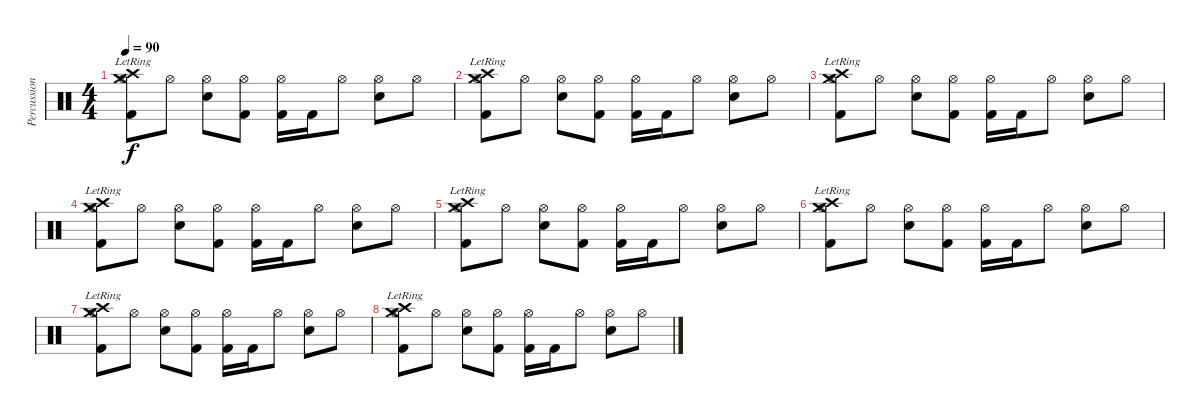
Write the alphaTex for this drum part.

\track ("Percussions" "Percussion") {instrument percussion}
\staff {score}
\articulation defaults
\ts (4 4)
\tempo 90
\clef neutral
\ks c
("Kick (hit) 2" "Hi-Hat (open)" "Crash medium (hit)"{lr} "Crash high (hit)").8{dy f} "Hi-Hat (open)".8 ("Snare (hit) 2" "Hi-Hat (open)").8 ("Kick (hit) 2" "Hi-Hat (open)").8 ("Kick (hit) 2" "Hi-Hat (open)").16 "Kick (hit) 2".16 "Hi-Hat (open)".8 ("Snare (hit) 2" "Hi-Hat (open)").8 "Hi-Hat (open)".8 |
("Kick (hit) 2" "Hi-Hat (open)" "Crash medium (hit)"{lr} "Crash high (hit)").8 "Hi-Hat (open)".8 ("Snare (hit) 2" "Hi-Hat (open)").8 ("Kick (hit) 2" "Hi-Hat (open)").8 ("Kick (hit) 2" "Hi-Hat (open)").16 "Kick (hit) 2".16 "Hi-Hat (open)".8 ("Snare (hit) 2" "Hi-Hat (open)").8 "Hi-Hat (open)".8 |
("Kick (hit) 2" "Hi-Hat (open)" "Crash medium (hit)"{lr} "Crash high (hit)").8 "Hi-Hat (open)".8 ("Snare (hit) 2" "Hi-Hat (open)").8 ("Kick (hit) 2" "Hi-Hat (open)").8 ("Kick (hit) 2" "Hi-Hat (open)").16 "Kick (hit) 2".16 "Hi-Hat (open)".8 ("Snare (hit) 2" "Hi-Hat (open)").8 "Hi-Hat (open)".8 |
("Kick (hit) 2" "Hi-Hat (open)" "Crash medium (hit)"{lr} "Crash high (hit)").8 "Hi-Hat (open)".8 ("Snare (hit) 2" "Hi-Hat (open)").8 ("Kick (hit) 2" "Hi-Hat (open)").8 ("Kick (hit) 2" "Hi-Hat (open)").16 "Kick (hit) 2".16 "Hi-Hat (open)".8 ("Snare (hit) 2" "Hi-Hat (open)").8 "Hi-Hat (open)".8 |
("Kick (hit) 2" "Hi-Hat (open)" "Crash medium (hit)"{lr} "Crash high (hit)").8 "Hi-Hat (open)".8 ("Snare (hit) 2" "Hi-Hat (open)").8 ("Kick (hit) 2" "Hi-Hat (open)").8 ("Kick (hit) 2" "Hi-Hat (open)").16 "Kick (hit) 2".16 "Hi-Hat (open)".8 ("Snare (hit) 2" "Hi-Hat (open)").8 "Hi-Hat (open)".8 |
("Kick (hit) 2" "Hi-Hat (open)" "Crash medium (hit)"{lr} "Crash high (hit)").8 "Hi-Hat (open)".8 ("Snare (hit) 2" "Hi-Hat (open)").8 ("Kick (hit) 2" "Hi-Hat (open)").8 ("Kick (hit) 2" "Hi-Hat (open)").16 "Kick (hit) 2".16 "Hi-Hat (open)".8 ("Snare (hit) 2" "Hi-Hat (open)").8 "Hi-Hat (open)".8 |
("Kick (hit) 2" "Hi-Hat (open)" "Crash medium (hit)"{lr} "Crash high (hit)").8 "Hi-Hat (open)".8 ("Snare (hit) 2" "Hi-Hat (open)").8 ("Kick (hit) 2" "Hi-Hat (open)").8 ("Kick (hit) 2" "Hi-Hat (open)").16 "Kick (hit) 2".16 "Hi-Hat (open)".8 ("Snare (hit) 2" "Hi-Hat (open)").8 "Hi-Hat (open)".8 |
("Kick (hit) 2" "Hi-Hat (open)" "Crash medium (hit)"{lr} "Crash high (hit)").8 "Hi-Hat (open)".8 ("Snare (hit) 2" "Hi-Hat (open)").8 ("Kick (hit) 2" "Hi-Hat (open)").8 ("Kick (hit) 2" "Hi-Hat (open)").16 "Kick (hit) 2".16 "Hi-Hat (open)".8 ("Snare (hit) 2" "Hi-Hat (open)").8 "Hi-Hat (open)".8
